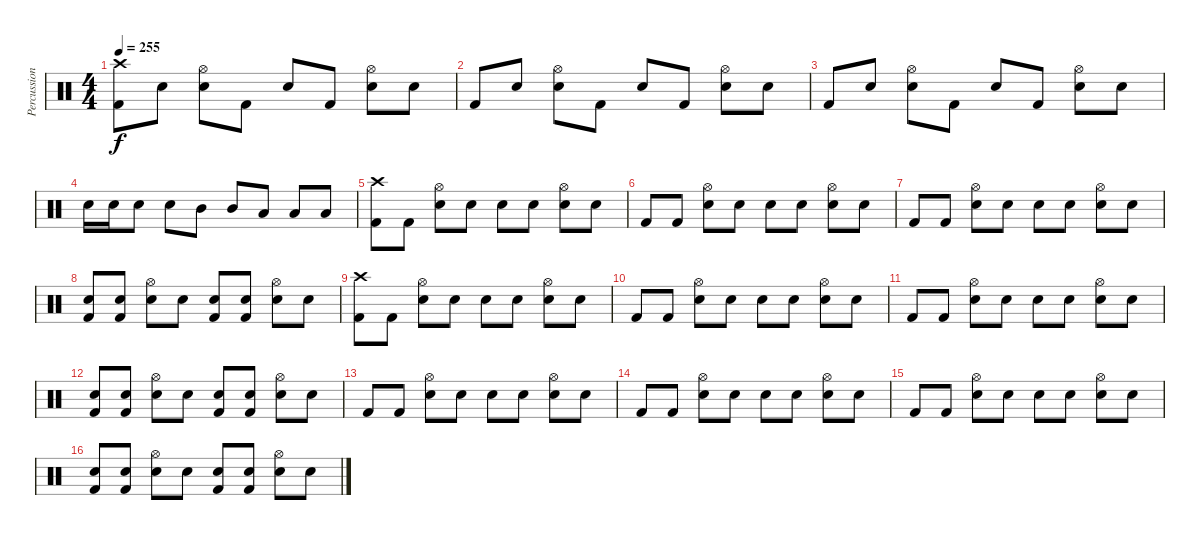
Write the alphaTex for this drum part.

\track ("Percussion" "Percussion") {instrument percussion}
\staff {score}
\articulation defaults
\ts (4 4)
\tempo 255
\clef neutral
\ks c
("Kick (hit) 2" "Crash high (hit)").8{dy f} "Snare (hit)".8 ("Snare (hit) 2" "Hi-Hat (open)").8 "Kick (hit) 2".8 "Snare (hit)".8 "Kick (hit) 2".8 ("Snare (hit) 2" "Hi-Hat (open)").8 "Snare (hit)".8 |
"Kick (hit) 2".8 "Snare (hit)".8 ("Snare (hit) 2" "Hi-Hat (open)").8 "Kick (hit) 2".8 "Snare (hit)".8 "Kick (hit) 2".8 ("Snare (hit) 2" "Hi-Hat (open)").8 "Snare (hit)".8 |
"Kick (hit) 2".8 "Snare (hit)".8 ("Snare (hit) 2" "Hi-Hat (open)").8 "Kick (hit) 2".8 "Snare (hit)".8 "Kick (hit) 2".8 ("Snare (hit) 2" "Hi-Hat (open)").8 "Snare (hit) 2".8 |
"Snare (hit) 2".16 "Snare (hit) 2".16 "Snare (hit) 2".8 "Snare (hit) 2".8 "Mid Tom (hit)".8 "Mid Tom (hit)".8 "Low Tom (hit)".8 "Low Tom (hit)".8 "Low Tom (hit)".8 |
("Kick (hit) 2" "Crash high (hit)").8 "Kick (hit) 2".8 ("Snare (hit) 2" "Hi-Hat (open)").8 "Snare (hit)".8 "Snare (hit)".8 "Snare (hit)".8 ("Snare (hit) 2" "Hi-Hat (open)").8 "Snare (hit)".8 |
"Kick (hit) 2".8 "Kick (hit) 2".8 ("Snare (hit) 2" "Hi-Hat (open)").8 "Snare (hit)".8 "Snare (hit)".8 "Snare (hit)".8 ("Snare (hit) 2" "Hi-Hat (open)").8 "Snare (hit)".8 |
"Kick (hit) 2".8 "Kick (hit) 2".8 ("Snare (hit) 2" "Hi-Hat (open)").8 "Snare (hit)".8 "Snare (hit)".8 "Snare (hit)".8 ("Snare (hit) 2" "Hi-Hat (open)").8 "Snare (hit)".8 |
("Kick (hit) 2" "Snare (hit)").8 ("Kick (hit) 2" "Snare (hit)").8 ("Snare (hit) 2" "Hi-Hat (open)").8 "Snare (hit)".8 ("Kick (hit) 2" "Snare (hit)").8 ("Kick (hit) 2" "Snare (hit)").8 ("Snare (hit) 2" "Hi-Hat (open)").8 "Snare (hit)".8 |
("Kick (hit) 2" "Crash high (hit)").8 "Kick (hit) 2".8 ("Snare (hit) 2" "Hi-Hat (open)").8 "Snare (hit)".8 "Snare (hit)".8 "Snare (hit)".8 ("Snare (hit) 2" "Hi-Hat (open)").8 "Snare (hit)".8 |
"Kick (hit) 2".8 "Kick (hit) 2".8 ("Snare (hit) 2" "Hi-Hat (open)").8 "Snare (hit)".8 "Snare (hit)".8 "Snare (hit)".8 ("Snare (hit) 2" "Hi-Hat (open)").8 "Snare (hit)".8 |
"Kick (hit) 2".8 "Kick (hit) 2".8 ("Snare (hit) 2" "Hi-Hat (open)").8 "Snare (hit)".8 "Snare (hit)".8 "Snare (hit)".8 ("Snare (hit) 2" "Hi-Hat (open)").8 "Snare (hit)".8 |
("Kick (hit) 2" "Snare (hit)").8 ("Kick (hit) 2" "Snare (hit)").8 ("Snare (hit) 2" "Hi-Hat (open)").8 "Snare (hit)".8 ("Kick (hit) 2" "Snare (hit)").8 ("Kick (hit) 2" "Snare (hit)").8 ("Snare (hit) 2" "Hi-Hat (open)").8 "Snare (hit)".8 |
"Kick (hit) 2".8 "Kick (hit) 2".8 ("Snare (hit) 2" "Hi-Hat (open)").8 "Snare (hit)".8 "Snare (hit)".8 "Snare (hit)".8 ("Snare (hit) 2" "Hi-Hat (open)").8 "Snare (hit)".8 |
"Kick (hit) 2".8 "Kick (hit) 2".8 ("Snare (hit) 2" "Hi-Hat (open)").8 "Snare (hit)".8 "Snare (hit)".8 "Snare (hit)".8 ("Snare (hit) 2" "Hi-Hat (open)").8 "Snare (hit)".8 |
"Kick (hit) 2".8 "Kick (hit) 2".8 ("Snare (hit) 2" "Hi-Hat (open)").8 "Snare (hit)".8 "Snare (hit)".8 "Snare (hit)".8 ("Snare (hit) 2" "Hi-Hat (open)").8 "Snare (hit)".8 |
("Kick (hit) 2" "Snare (hit)").8 ("Kick (hit) 2" "Snare (hit)").8 ("Snare (hit) 2" "Hi-Hat (open)").8 "Snare (hit)".8 ("Kick (hit) 2" "Snare (hit)").8 ("Kick (hit) 2" "Snare (hit)").8 ("Snare (hit) 2" "Hi-Hat (open)").8 "Snare (hit)".8
